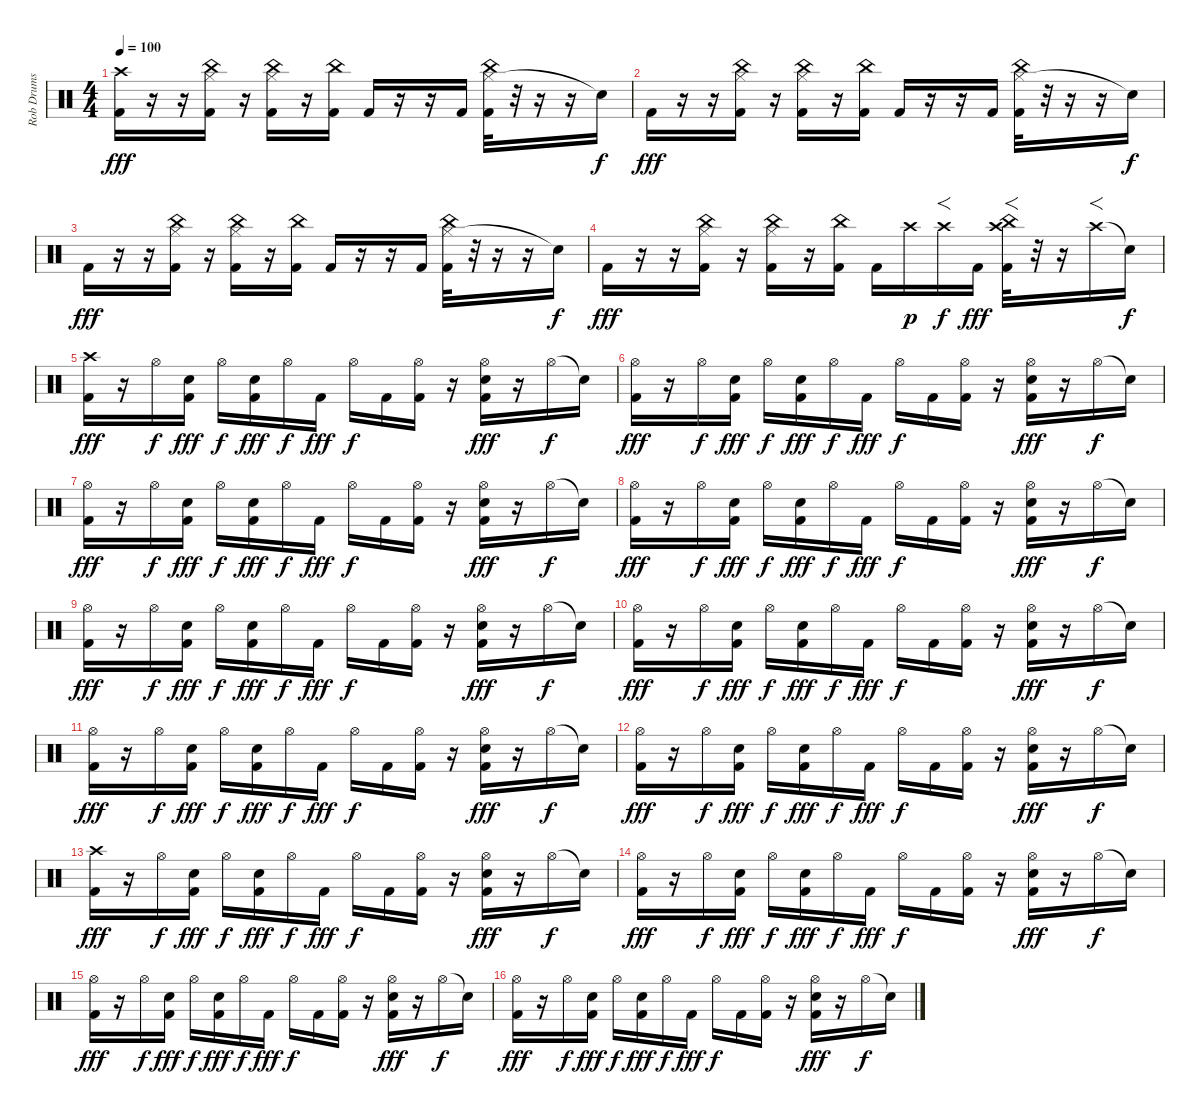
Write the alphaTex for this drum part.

\track ("Rob Drums" "Rob Drums") {instrument percussion}
\staff {score}
\articulation defaults
\ts (4 4)
\tempo 100
\clef neutral
\ks c
("Crash high (hit)" "Kick (hit) 2").16{dy fff} r.16 r.16 ("Hi-Hat (closed)" "China (hit)" "Kick (hit) 2").16 r.16 ("Hi-Hat (closed)" "China (hit)" "Kick (hit) 2").16 r.16 ("China (hit)" "Kick (hit) 2").16 "Kick (hit) 2".16 r.16 r.16 "Kick (hit) 2".16 ("Hi-Hat (closed)" "China (hit)" "Kick (hit) 2").32 r.32 r.16 r.16 "Snare (hit)"{t}.16{dy f} |
"Kick (hit) 2".16{dy fff} r.16 r.16 ("Hi-Hat (closed)" "China (hit)" "Kick (hit) 2").16 r.16 ("Hi-Hat (closed)" "China (hit)" "Kick (hit) 2").16 r.16 ("China (hit)" "Kick (hit) 2").16 "Kick (hit) 2".16 r.16 r.16 "Kick (hit) 2".16 ("Hi-Hat (closed)" "China (hit)" "Kick (hit) 2").32 r.32 r.16 r.16 "Snare (hit)"{t}.16{dy f} |
"Kick (hit) 2".16{dy fff} r.16 r.16 ("Hi-Hat (closed)" "China (hit)" "Kick (hit) 2").16 r.16 ("Hi-Hat (closed)" "China (hit)" "Kick (hit) 2").16 r.16 ("China (hit)" "Kick (hit) 2").16 "Kick (hit) 2".16 r.16 r.16 "Kick (hit) 2".16 ("Hi-Hat (closed)" "China (hit)" "Kick (hit) 2").32 r.32 r.16 r.16 "Snare (hit)"{t}.16{dy f} |
"Kick (hit) 2".16{dy fff} r.16 r.16 ("Hi-Hat (closed)" "China (hit)" "Kick (hit) 2").16 r.16 ("Hi-Hat (closed)" "China (hit)" "Kick (hit) 2").16 r.16 ("China (hit)" "Kick (hit) 2").16 "Kick (hit) 2".16 "Crash high (hit)".16{dy p} "Crash high (hit)".16{f dy f} "Kick (hit) 2".16{dy fff} ("Crash high (hit)" "China (hit)" "Kick (hit) 2").32{f} r.32 r.16 "Crash high (hit)".16{f} "Snare (hit)"{t}.16{dy f} |
("Crash high (hit)" "Kick (hit) 2").16{dy fff volume 16} r.16 "Hi-Hat (open)".16{dy f} ("Snare (hit) 2" "Kick (hit) 2").16{dy fff} "Hi-Hat (open)".16{dy f} ("Snare (hit) 2" "Kick (hit) 2").16{dy fff} "Hi-Hat (open)".16{dy f} "Kick (hit) 2".16{dy fff} "Hi-Hat (open)".16{dy f} "Kick (hit) 2".16 ("Hi-Hat (open)" "Kick (hit) 2").16 r.16 ("Hi-Hat (open)" "Snare (hit) 2" "Kick (hit) 2").16{dy fff} r.16 "Hi-Hat (open)".16{dy f} "Snare (hit)"{t}.16 |
("Hi-Hat (open)" "Kick (hit) 2").16{dy fff} r.16 "Hi-Hat (open)".16{dy f} ("Snare (hit) 2" "Kick (hit) 2").16{dy fff} "Hi-Hat (open)".16{dy f} ("Snare (hit) 2" "Kick (hit) 2").16{dy fff} "Hi-Hat (open)".16{dy f} "Kick (hit) 2".16{dy fff} "Hi-Hat (open)".16{dy f} "Kick (hit) 2".16 ("Hi-Hat (open)" "Kick (hit) 2").16 r.16 ("Hi-Hat (open)" "Snare (hit) 2" "Kick (hit) 2").16{dy fff} r.16 "Hi-Hat (open)".16{dy f} "Snare (hit)"{t}.16 |
("Hi-Hat (open)" "Kick (hit) 2").16{dy fff} r.16 "Hi-Hat (open)".16{dy f} ("Snare (hit) 2" "Kick (hit) 2").16{dy fff} "Hi-Hat (open)".16{dy f} ("Snare (hit) 2" "Kick (hit) 2").16{dy fff} "Hi-Hat (open)".16{dy f} "Kick (hit) 2".16{dy fff} "Hi-Hat (open)".16{dy f} "Kick (hit) 2".16 ("Hi-Hat (open)" "Kick (hit) 2").16 r.16 ("Hi-Hat (open)" "Snare (hit) 2" "Kick (hit) 2").16{dy fff} r.16 "Hi-Hat (open)".16{dy f} "Snare (hit)"{t}.16 |
("Hi-Hat (open)" "Kick (hit) 2").16{dy fff} r.16 "Hi-Hat (open)".16{dy f} ("Snare (hit) 2" "Kick (hit) 2").16{dy fff} "Hi-Hat (open)".16{dy f} ("Snare (hit) 2" "Kick (hit) 2").16{dy fff} "Hi-Hat (open)".16{dy f} "Kick (hit) 2".16{dy fff} "Hi-Hat (open)".16{dy f} "Kick (hit) 2".16 ("Hi-Hat (open)" "Kick (hit) 2").16 r.16 ("Hi-Hat (open)" "Snare (hit) 2" "Kick (hit) 2").16{dy fff} r.16 "Hi-Hat (open)".16{dy f} "Snare (hit)"{t}.16 |
("Hi-Hat (open)" "Kick (hit) 2").16{dy fff} r.16 "Hi-Hat (open)".16{dy f} ("Snare (hit) 2" "Kick (hit) 2").16{dy fff} "Hi-Hat (open)".16{dy f} ("Snare (hit) 2" "Kick (hit) 2").16{dy fff} "Hi-Hat (open)".16{dy f} "Kick (hit) 2".16{dy fff} "Hi-Hat (open)".16{dy f} "Kick (hit) 2".16 ("Hi-Hat (open)" "Kick (hit) 2").16 r.16 ("Hi-Hat (open)" "Snare (hit) 2" "Kick (hit) 2").16{dy fff} r.16 "Hi-Hat (open)".16{dy f} "Snare (hit)"{t}.16 |
("Hi-Hat (open)" "Kick (hit) 2").16{dy fff} r.16 "Hi-Hat (open)".16{dy f} ("Snare (hit) 2" "Kick (hit) 2").16{dy fff} "Hi-Hat (open)".16{dy f} ("Snare (hit) 2" "Kick (hit) 2").16{dy fff} "Hi-Hat (open)".16{dy f} "Kick (hit) 2".16{dy fff} "Hi-Hat (open)".16{dy f} "Kick (hit) 2".16 ("Hi-Hat (open)" "Kick (hit) 2").16 r.16 ("Hi-Hat (open)" "Snare (hit) 2" "Kick (hit) 2").16{dy fff} r.16 "Hi-Hat (open)".16{dy f} "Snare (hit)"{t}.16 |
("Hi-Hat (open)" "Kick (hit) 2").16{dy fff} r.16 "Hi-Hat (open)".16{dy f} ("Snare (hit) 2" "Kick (hit) 2").16{dy fff} "Hi-Hat (open)".16{dy f} ("Snare (hit) 2" "Kick (hit) 2").16{dy fff} "Hi-Hat (open)".16{dy f} "Kick (hit) 2".16{dy fff} "Hi-Hat (open)".16{dy f} "Kick (hit) 2".16 ("Hi-Hat (open)" "Kick (hit) 2").16 r.16 ("Hi-Hat (open)" "Snare (hit) 2" "Kick (hit) 2").16{dy fff} r.16 "Hi-Hat (open)".16{dy f} "Snare (hit)"{t}.16 |
("Hi-Hat (open)" "Kick (hit) 2").16{dy fff} r.16 "Hi-Hat (open)".16{dy f} ("Snare (hit) 2" "Kick (hit) 2").16{dy fff} "Hi-Hat (open)".16{dy f} ("Snare (hit) 2" "Kick (hit) 2").16{dy fff} "Hi-Hat (open)".16{dy f} "Kick (hit) 2".16{dy fff} "Hi-Hat (open)".16{dy f} "Kick (hit) 2".16 ("Hi-Hat (open)" "Kick (hit) 2").16 r.16 ("Hi-Hat (open)" "Snare (hit) 2" "Kick (hit) 2").16{dy fff} r.16 "Hi-Hat (open)".16{dy f} "Snare (hit)"{t}.16 |
("Crash high (hit)" "Kick (hit) 2").16{dy fff volume 16} r.16 "Hi-Hat (open)".16{dy f} ("Snare (hit) 2" "Kick (hit) 2").16{dy fff} "Hi-Hat (open)".16{dy f} ("Snare (hit) 2" "Kick (hit) 2").16{dy fff} "Hi-Hat (open)".16{dy f} "Kick (hit) 2".16{dy fff} "Hi-Hat (open)".16{dy f} "Kick (hit) 2".16 ("Hi-Hat (open)" "Kick (hit) 2").16 r.16 ("Hi-Hat (open)" "Snare (hit) 2" "Kick (hit) 2").16{dy fff} r.16 "Hi-Hat (open)".16{dy f} "Snare (hit)"{t}.16 |
("Hi-Hat (open)" "Kick (hit) 2").16{dy fff} r.16 "Hi-Hat (open)".16{dy f} ("Snare (hit) 2" "Kick (hit) 2").16{dy fff} "Hi-Hat (open)".16{dy f} ("Snare (hit) 2" "Kick (hit) 2").16{dy fff} "Hi-Hat (open)".16{dy f} "Kick (hit) 2".16{dy fff} "Hi-Hat (open)".16{dy f} "Kick (hit) 2".16 ("Hi-Hat (open)" "Kick (hit) 2").16 r.16 ("Hi-Hat (open)" "Snare (hit) 2" "Kick (hit) 2").16{dy fff} r.16 "Hi-Hat (open)".16{dy f} "Snare (hit)"{t}.16 |
("Hi-Hat (open)" "Kick (hit) 2").16{dy fff} r.16 "Hi-Hat (open)".16{dy f} ("Snare (hit) 2" "Kick (hit) 2").16{dy fff} "Hi-Hat (open)".16{dy f} ("Snare (hit) 2" "Kick (hit) 2").16{dy fff} "Hi-Hat (open)".16{dy f} "Kick (hit) 2".16{dy fff} "Hi-Hat (open)".16{dy f} "Kick (hit) 2".16 ("Hi-Hat (open)" "Kick (hit) 2").16 r.16 ("Hi-Hat (open)" "Snare (hit) 2" "Kick (hit) 2").16{dy fff} r.16 "Hi-Hat (open)".16{dy f} "Snare (hit)"{t}.16 |
("Hi-Hat (open)" "Kick (hit) 2").16{dy fff} r.16 "Hi-Hat (open)".16{dy f} ("Snare (hit) 2" "Kick (hit) 2").16{dy fff} "Hi-Hat (open)".16{dy f} ("Snare (hit) 2" "Kick (hit) 2").16{dy fff} "Hi-Hat (open)".16{dy f} "Kick (hit) 2".16{dy fff} "Hi-Hat (open)".16{dy f} "Kick (hit) 2".16 ("Hi-Hat (open)" "Kick (hit) 2").16 r.16 ("Hi-Hat (open)" "Snare (hit) 2" "Kick (hit) 2").16{dy fff} r.16 "Hi-Hat (open)".16{dy f} "Snare (hit)"{t}.16
